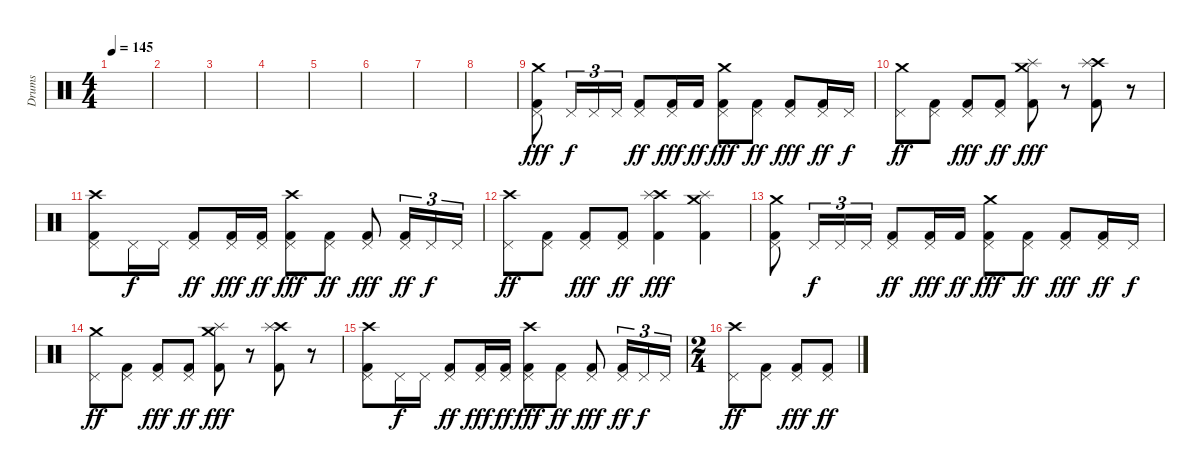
\track ("Drums" "Drums") {instrument percussion}
\staff {score}
\articulation defaults
\ts (4 4)
\tempo 145
\clef neutral
\ks c
|
|
|
|
|
|
|
|
("Crash medium (hit)" "Pedal Hi-Hat (hit)" "Kick (hit) 2").8{dy fff} "Pedal Hi-Hat (hit)".16{tu (3 2) dy f} "Pedal Hi-Hat (hit)".16{tu (3 2)} "Pedal Hi-Hat (hit)".16{tu (3 2)} ("Pedal Hi-Hat (hit)" "Kick (hit) 2").8{dy ff} ("Pedal Hi-Hat (hit)" "Kick (hit) 2").16{dy fff} "Kick (hit) 2".16{dy ff} ("Crash medium (hit)" "Pedal Hi-Hat (hit)" "Kick (hit) 2").8{dy fff} ("Pedal Hi-Hat (hit)" "Kick (hit) 2").8{dy ff} ("Pedal Hi-Hat (hit)" "Kick (hit) 2").8{dy fff} ("Pedal Hi-Hat (hit)" "Kick (hit) 2").16{dy ff} "Pedal Hi-Hat (hit)".16{dy f} |
("Crash medium (hit)" "Pedal Hi-Hat (hit)").8{dy ff} ("Pedal Hi-Hat (hit)" "Kick (hit) 2").8 ("Pedal Hi-Hat (hit)" "Kick (hit) 2").8{dy fff} ("Pedal Hi-Hat (hit)" "Kick (hit) 2").8{dy ff} ("Crash medium (hit)" "Splash (hit)" "Kick (hit) 2").8{dy fff} r.8 ("Crash high (hit)" "Splash (hit)" "Kick (hit) 2").8 r.8 |
("Crash high (hit)" "Pedal Hi-Hat (hit)" "Kick (hit) 2").8 "Pedal Hi-Hat (hit)".16{dy f} "Pedal Hi-Hat (hit)".16 ("Pedal Hi-Hat (hit)" "Kick (hit) 2").8{dy ff} ("Pedal Hi-Hat (hit)" "Kick (hit) 2").16{dy fff} ("Pedal Hi-Hat (hit)" "Kick (hit) 2").16{dy ff} ("Crash high (hit)" "Pedal Hi-Hat (hit)" "Kick (hit) 2").8{dy fff} ("Pedal Hi-Hat (hit)" "Kick (hit) 2").8{dy ff} ("Pedal Hi-Hat (hit)" "Kick (hit) 2").8{dy fff} ("Pedal Hi-Hat (hit)" "Kick (hit) 2").16{tu (3 2) dy ff} "Pedal Hi-Hat (hit)".16{tu (3 2) dy f} "Pedal Hi-Hat (hit)".16{tu (3 2)} |
("Crash high (hit)" "Pedal Hi-Hat (hit)").8{dy ff} ("Pedal Hi-Hat (hit)" "Kick (hit) 2").8 ("Pedal Hi-Hat (hit)" "Kick (hit) 2").8{dy fff} ("Pedal Hi-Hat (hit)" "Kick (hit) 2").8{dy ff} ("Crash high (hit)" "Splash (hit)" "Kick (hit) 2").4{dy fff} ("Crash medium (hit)" "Splash (hit)" "Kick (hit) 2").4 |
("Crash medium (hit)" "Pedal Hi-Hat (hit)" "Kick (hit) 2").8 "Pedal Hi-Hat (hit)".16{tu (3 2) dy f} "Pedal Hi-Hat (hit)".16{tu (3 2)} "Pedal Hi-Hat (hit)".16{tu (3 2)} ("Pedal Hi-Hat (hit)" "Kick (hit) 2").8{dy ff} ("Pedal Hi-Hat (hit)" "Kick (hit) 2").16{dy fff} "Kick (hit) 2".16{dy ff} ("Crash medium (hit)" "Pedal Hi-Hat (hit)" "Kick (hit) 2").8{dy fff} ("Pedal Hi-Hat (hit)" "Kick (hit) 2").8{dy ff} ("Pedal Hi-Hat (hit)" "Kick (hit) 2").8{dy fff} ("Pedal Hi-Hat (hit)" "Kick (hit) 2").16{dy ff} "Pedal Hi-Hat (hit)".16{dy f} |
("Crash medium (hit)" "Pedal Hi-Hat (hit)").8{dy ff} ("Pedal Hi-Hat (hit)" "Kick (hit) 2").8 ("Pedal Hi-Hat (hit)" "Kick (hit) 2").8{dy fff} ("Pedal Hi-Hat (hit)" "Kick (hit) 2").8{dy ff} ("Crash medium (hit)" "Splash (hit)" "Kick (hit) 2").8{dy fff} r.8 ("Crash high (hit)" "Splash (hit)" "Kick (hit) 2").8 r.8 |
("Crash high (hit)" "Pedal Hi-Hat (hit)" "Kick (hit) 2").8 "Pedal Hi-Hat (hit)".16{dy f} "Pedal Hi-Hat (hit)".16 ("Pedal Hi-Hat (hit)" "Kick (hit) 2").8{dy ff} ("Pedal Hi-Hat (hit)" "Kick (hit) 2").16{dy fff} ("Pedal Hi-Hat (hit)" "Kick (hit) 2").16{dy ff} ("Crash high (hit)" "Pedal Hi-Hat (hit)" "Kick (hit) 2").8{dy fff} ("Pedal Hi-Hat (hit)" "Kick (hit) 2").8{dy ff} ("Pedal Hi-Hat (hit)" "Kick (hit) 2").8{dy fff} ("Pedal Hi-Hat (hit)" "Kick (hit) 2").16{tu (3 2) dy ff} "Pedal Hi-Hat (hit)".16{tu (3 2) dy f} "Pedal Hi-Hat (hit)".16{tu (3 2)} |
\ts (2 4)
("Crash high (hit)" "Pedal Hi-Hat (hit)").8{dy ff} ("Pedal Hi-Hat (hit)" "Kick (hit) 2").8 ("Pedal Hi-Hat (hit)" "Kick (hit) 2").8{dy fff} ("Pedal Hi-Hat (hit)" "Kick (hit) 2").8{dy ff}
